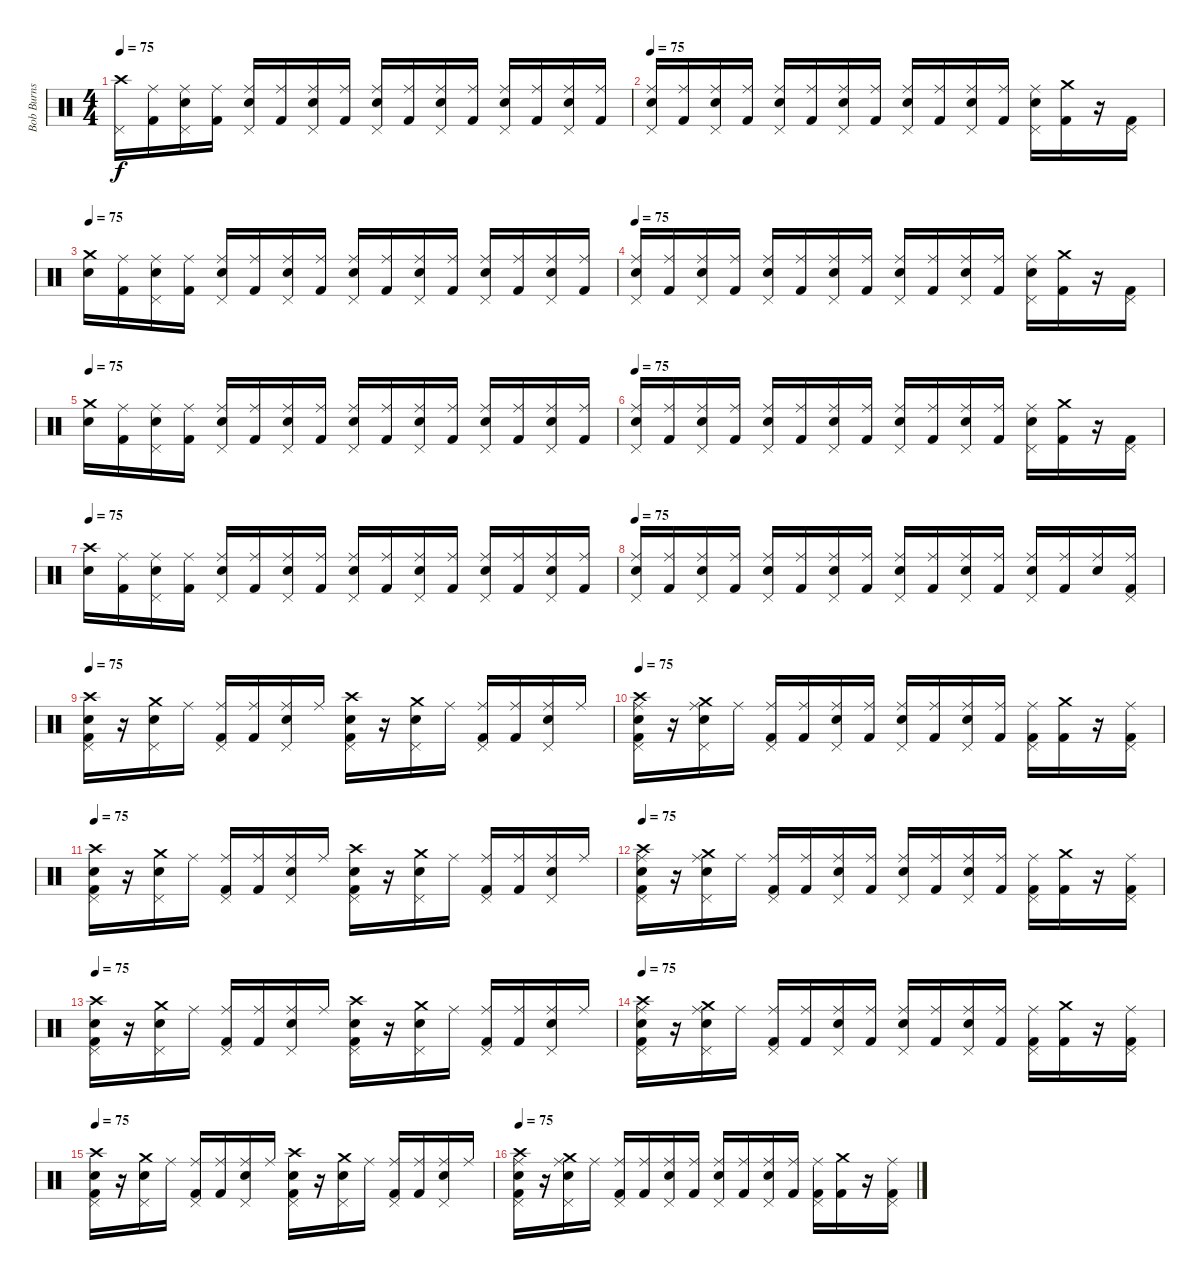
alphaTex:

\track ("Bob Burns (drums and percussion)" "Bob Burns ") {instrument percussion}
\staff {score}
\articulation defaults
\ts (4 4)
\tempo 75
\clef neutral
\ks c
("Crash high (hit)" "Pedal Hi-Hat (hit)").16{dy f} ("Ride (middle)" "Kick (hit) 2").16 ("Ride (middle)" "Pedal Hi-Hat (hit)" "Electric Snare (hit)").16 ("Ride (middle)" "Kick (hit) 2").16 ("Ride (middle)" "Pedal Hi-Hat (hit)" "Electric Snare (hit)").16 ("Ride (middle)" "Kick (hit) 2").16 ("Ride (middle)" "Pedal Hi-Hat (hit)" "Electric Snare (hit)").16 ("Ride (middle)" "Kick (hit) 2").16 ("Ride (middle)" "Pedal Hi-Hat (hit)" "Electric Snare (hit)").16 ("Ride (middle)" "Kick (hit) 2").16 ("Ride (middle)" "Pedal Hi-Hat (hit)" "Electric Snare (hit)").16 ("Ride (middle)" "Kick (hit) 2").16 ("Ride (middle)" "Pedal Hi-Hat (hit)" "Electric Snare (hit)").16 ("Ride (middle)" "Kick (hit) 2").16 ("Ride (middle)" "Pedal Hi-Hat (hit)" "Electric Snare (hit)").16 ("Ride (middle)" "Kick (hit) 2").16 |
\tempo 75
("Ride (middle)" "Pedal Hi-Hat (hit)" "Electric Snare (hit)").16 ("Ride (middle)" "Kick (hit) 2").16 ("Ride (middle)" "Pedal Hi-Hat (hit)" "Electric Snare (hit)").16 ("Ride (middle)" "Kick (hit) 2").16 ("Ride (middle)" "Pedal Hi-Hat (hit)" "Electric Snare (hit)").16 ("Ride (middle)" "Kick (hit) 2").16 ("Ride (middle)" "Pedal Hi-Hat (hit)" "Electric Snare (hit)").16 ("Ride (middle)" "Kick (hit) 2").16 ("Ride (middle)" "Pedal Hi-Hat (hit)" "Electric Snare (hit)").16 ("Ride (middle)" "Kick (hit) 2").16 ("Ride (middle)" "Pedal Hi-Hat (hit)" "Electric Snare (hit)").16 ("Ride (middle)" "Kick (hit) 2").16 ("Ride (middle)" "Pedal Hi-Hat (hit)" "Electric Snare (hit)").16 ("Crash medium (hit)" "Kick (hit) 2").16 r.16 ("Pedal Hi-Hat (hit)" "Kick (hit) 2").16 |
\tempo 75
("Crash medium (hit)" "Electric Snare (hit)").16 ("Ride (middle)" "Kick (hit) 2").16 ("Ride (middle)" "Pedal Hi-Hat (hit)" "Electric Snare (hit)").16 ("Ride (middle)" "Kick (hit) 2").16 ("Ride (middle)" "Pedal Hi-Hat (hit)" "Electric Snare (hit)").16 ("Ride (middle)" "Kick (hit) 2").16 ("Ride (middle)" "Pedal Hi-Hat (hit)" "Electric Snare (hit)").16 ("Ride (middle)" "Kick (hit) 2").16 ("Ride (middle)" "Pedal Hi-Hat (hit)" "Electric Snare (hit)").16 ("Ride (middle)" "Kick (hit) 2").16 ("Ride (middle)" "Pedal Hi-Hat (hit)" "Electric Snare (hit)").16 ("Ride (middle)" "Kick (hit) 2").16 ("Ride (middle)" "Pedal Hi-Hat (hit)" "Electric Snare (hit)").16 ("Ride (middle)" "Kick (hit) 2").16 ("Ride (middle)" "Pedal Hi-Hat (hit)" "Electric Snare (hit)").16 ("Ride (middle)" "Kick (hit) 2").16 |
\tempo 75
("Ride (middle)" "Pedal Hi-Hat (hit)" "Electric Snare (hit)").16 ("Ride (middle)" "Kick (hit) 2").16 ("Ride (middle)" "Pedal Hi-Hat (hit)" "Electric Snare (hit)").16 ("Ride (middle)" "Kick (hit) 2").16 ("Ride (middle)" "Pedal Hi-Hat (hit)" "Electric Snare (hit)").16 ("Ride (middle)" "Kick (hit) 2").16 ("Ride (middle)" "Pedal Hi-Hat (hit)" "Electric Snare (hit)").16 ("Ride (middle)" "Kick (hit) 2").16 ("Ride (middle)" "Pedal Hi-Hat (hit)" "Electric Snare (hit)").16 ("Ride (middle)" "Kick (hit) 2").16 ("Ride (middle)" "Pedal Hi-Hat (hit)" "Electric Snare (hit)").16 ("Ride (middle)" "Kick (hit) 2").16 ("Ride (middle)" "Pedal Hi-Hat (hit)" "Electric Snare (hit)").16 ("Crash medium (hit)" "Kick (hit) 2").16 r.16 ("Pedal Hi-Hat (hit)" "Kick (hit) 2").16 |
\tempo 75
("Crash medium (hit)" "Electric Snare (hit)").16 ("Ride (middle)" "Kick (hit) 2").16 ("Ride (middle)" "Pedal Hi-Hat (hit)" "Electric Snare (hit)").16 ("Ride (middle)" "Kick (hit) 2").16 ("Ride (middle)" "Pedal Hi-Hat (hit)" "Electric Snare (hit)").16 ("Ride (middle)" "Kick (hit) 2").16 ("Ride (middle)" "Pedal Hi-Hat (hit)" "Electric Snare (hit)").16 ("Ride (middle)" "Kick (hit) 2").16 ("Ride (middle)" "Pedal Hi-Hat (hit)" "Electric Snare (hit)").16 ("Ride (middle)" "Kick (hit) 2").16 ("Ride (middle)" "Pedal Hi-Hat (hit)" "Electric Snare (hit)").16 ("Ride (middle)" "Kick (hit) 2").16 ("Ride (middle)" "Pedal Hi-Hat (hit)" "Electric Snare (hit)").16 ("Ride (middle)" "Kick (hit) 2").16 ("Ride (middle)" "Pedal Hi-Hat (hit)" "Electric Snare (hit)").16 ("Ride (middle)" "Kick (hit) 2").16 |
\tempo 75
("Ride (middle)" "Pedal Hi-Hat (hit)" "Electric Snare (hit)").16 ("Ride (middle)" "Kick (hit) 2").16 ("Ride (middle)" "Pedal Hi-Hat (hit)" "Electric Snare (hit)").16 ("Ride (middle)" "Kick (hit) 2").16 ("Ride (middle)" "Pedal Hi-Hat (hit)" "Electric Snare (hit)").16 ("Ride (middle)" "Kick (hit) 2").16 ("Ride (middle)" "Pedal Hi-Hat (hit)" "Electric Snare (hit)").16 ("Ride (middle)" "Kick (hit) 2").16 ("Ride (middle)" "Pedal Hi-Hat (hit)" "Electric Snare (hit)").16 ("Ride (middle)" "Kick (hit) 2").16 ("Ride (middle)" "Pedal Hi-Hat (hit)" "Electric Snare (hit)").16 ("Ride (middle)" "Kick (hit) 2").16 ("Ride (middle)" "Pedal Hi-Hat (hit)" "Electric Snare (hit)").16 ("Crash medium (hit)" "Kick (hit) 2").16 r.16 ("Pedal Hi-Hat (hit)" "Kick (hit) 2").16 |
\tempo 75
("Crash high (hit)" "Electric Snare (hit)").16 ("Ride (middle)" "Kick (hit) 2").16 ("Ride (middle)" "Pedal Hi-Hat (hit)" "Electric Snare (hit)").16 ("Ride (middle)" "Kick (hit) 2").16 ("Ride (middle)" "Pedal Hi-Hat (hit)" "Electric Snare (hit)").16 ("Ride (middle)" "Kick (hit) 2").16 ("Ride (middle)" "Pedal Hi-Hat (hit)" "Electric Snare (hit)").16 ("Ride (middle)" "Kick (hit) 2").16 ("Ride (middle)" "Pedal Hi-Hat (hit)" "Electric Snare (hit)").16 ("Ride (middle)" "Kick (hit) 2").16 ("Ride (middle)" "Pedal Hi-Hat (hit)" "Electric Snare (hit)").16 ("Ride (middle)" "Kick (hit) 2").16 ("Ride (middle)" "Pedal Hi-Hat (hit)" "Electric Snare (hit)").16 ("Ride (middle)" "Kick (hit) 2").16 ("Ride (middle)" "Pedal Hi-Hat (hit)" "Electric Snare (hit)").16 ("Ride (middle)" "Kick (hit) 2").16 |
\tempo 75
("Ride (middle)" "Pedal Hi-Hat (hit)" "Electric Snare (hit)").16 ("Ride (middle)" "Kick (hit) 2").16 ("Ride (middle)" "Pedal Hi-Hat (hit)" "Electric Snare (hit)").16 ("Ride (middle)" "Kick (hit) 2").16 ("Ride (middle)" "Pedal Hi-Hat (hit)" "Electric Snare (hit)").16 ("Ride (middle)" "Kick (hit) 2").16 ("Ride (middle)" "Pedal Hi-Hat (hit)" "Electric Snare (hit)").16 ("Ride (middle)" "Kick (hit) 2").16 ("Ride (middle)" "Pedal Hi-Hat (hit)" "Electric Snare (hit)").16 ("Ride (middle)" "Kick (hit) 2").16 ("Ride (middle)" "Pedal Hi-Hat (hit)" "Electric Snare (hit)").16 ("Ride (middle)" "Kick (hit) 2").16 ("Ride (middle)" "Pedal Hi-Hat (hit)" "Electric Snare (hit)").16 ("Ride (middle)" "Kick (hit) 2").16 ("Ride (middle)" "Electric Snare (hit)").16 ("Ride (middle)" "Pedal Hi-Hat (hit)" "Kick (hit) 2").16 |
\tempo 75
("Crash high (hit)" "Electric Snare (hit)" "Pedal Hi-Hat (hit)" "Kick (hit) 2").16 r.16 ("Crash medium (hit)" "Pedal Hi-Hat (hit)" "Electric Snare (hit)").16 "Ride (middle)".16 ("Ride (middle)" "Pedal Hi-Hat (hit)" "Kick (hit) 2").16 ("Ride (middle)" "Kick (hit) 2").16 ("Ride (middle)" "Pedal Hi-Hat (hit)" "Electric Snare (hit)").16 "Ride (middle)".16 ("Crash high (hit)" "Pedal Hi-Hat (hit)" "Electric Snare (hit)" "Kick (hit) 2").16 r.16 ("Crash medium (hit)" "Pedal Hi-Hat (hit)" "Electric Snare (hit)").16 "Ride (middle)".16 ("Ride (middle)" "Pedal Hi-Hat (hit)" "Kick (hit) 2").16 ("Ride (middle)" "Kick (hit) 2").16 ("Ride (middle)" "Pedal Hi-Hat (hit)" "Electric Snare (hit)").16 "Ride (middle)".16 |
\tempo 75
("Crash high (hit)" "Ride (middle)" "Pedal Hi-Hat (hit)" "Electric Snare (hit)" "Kick (hit) 2").16 r.16 ("Crash medium (hit)" "Ride (middle)" "Pedal Hi-Hat (hit)" "Electric Snare (hit)").16 "Ride (middle)".16 ("Ride (middle)" "Pedal Hi-Hat (hit)" "Kick (hit) 2").16 ("Ride (middle)" "Kick (hit) 2").16 ("Ride (middle)" "Pedal Hi-Hat (hit)" "Electric Snare (hit)").16 ("Ride (middle)" "Kick (hit) 2").16 ("Ride (middle)" "Pedal Hi-Hat (hit)" "Electric Snare (hit)").16 ("Ride (middle)" "Kick (hit) 2").16 ("Ride (middle)" "Pedal Hi-Hat (hit)" "Electric Snare (hit)").16 ("Ride (middle)" "Kick (hit) 2").16 ("Ride (middle)" "Pedal Hi-Hat (hit)" "Kick (hit) 2").16 ("Crash medium (hit)" "Kick (hit) 2").16 r.16 ("Ride (middle)" "Pedal Hi-Hat (hit)" "Kick (hit) 2").16 |
\tempo 75
("Crash high (hit)" "Electric Snare (hit)" "Pedal Hi-Hat (hit)" "Kick (hit) 2").16 r.16 ("Crash medium (hit)" "Pedal Hi-Hat (hit)" "Electric Snare (hit)").16 "Ride (middle)".16 ("Ride (middle)" "Pedal Hi-Hat (hit)" "Kick (hit) 2").16 ("Ride (middle)" "Kick (hit) 2").16 ("Ride (middle)" "Pedal Hi-Hat (hit)" "Electric Snare (hit)").16 "Ride (middle)".16 ("Crash high (hit)" "Pedal Hi-Hat (hit)" "Electric Snare (hit)" "Kick (hit) 2").16 r.16 ("Crash medium (hit)" "Pedal Hi-Hat (hit)" "Electric Snare (hit)").16 "Ride (middle)".16 ("Ride (middle)" "Pedal Hi-Hat (hit)" "Kick (hit) 2").16 ("Ride (middle)" "Kick (hit) 2").16 ("Ride (middle)" "Pedal Hi-Hat (hit)" "Electric Snare (hit)").16 "Ride (middle)".16 |
\tempo 75
("Crash high (hit)" "Ride (middle)" "Pedal Hi-Hat (hit)" "Electric Snare (hit)" "Kick (hit) 2").16 r.16 ("Crash medium (hit)" "Ride (middle)" "Pedal Hi-Hat (hit)" "Electric Snare (hit)").16 "Ride (middle)".16 ("Ride (middle)" "Pedal Hi-Hat (hit)" "Kick (hit) 2").16 ("Ride (middle)" "Kick (hit) 2").16 ("Ride (middle)" "Pedal Hi-Hat (hit)" "Electric Snare (hit)").16 ("Ride (middle)" "Kick (hit) 2").16 ("Ride (middle)" "Pedal Hi-Hat (hit)" "Electric Snare (hit)").16 ("Ride (middle)" "Kick (hit) 2").16 ("Ride (middle)" "Pedal Hi-Hat (hit)" "Electric Snare (hit)").16 ("Ride (middle)" "Kick (hit) 2").16 ("Ride (middle)" "Pedal Hi-Hat (hit)" "Kick (hit) 2").16 ("Crash medium (hit)" "Kick (hit) 2").16 r.16 ("Ride (middle)" "Pedal Hi-Hat (hit)" "Kick (hit) 2").16 |
\tempo 75
("Crash high (hit)" "Electric Snare (hit)" "Pedal Hi-Hat (hit)" "Kick (hit) 2").16 r.16 ("Crash medium (hit)" "Pedal Hi-Hat (hit)" "Electric Snare (hit)").16 "Ride (middle)".16 ("Ride (middle)" "Pedal Hi-Hat (hit)" "Kick (hit) 2").16 ("Ride (middle)" "Kick (hit) 2").16 ("Ride (middle)" "Pedal Hi-Hat (hit)" "Electric Snare (hit)").16 "Ride (middle)".16 ("Crash high (hit)" "Pedal Hi-Hat (hit)" "Electric Snare (hit)" "Kick (hit) 2").16 r.16 ("Crash medium (hit)" "Pedal Hi-Hat (hit)" "Electric Snare (hit)").16 "Ride (middle)".16 ("Ride (middle)" "Pedal Hi-Hat (hit)" "Kick (hit) 2").16 ("Ride (middle)" "Kick (hit) 2").16 ("Ride (middle)" "Pedal Hi-Hat (hit)" "Electric Snare (hit)").16 "Ride (middle)".16 |
\tempo 75
("Crash high (hit)" "Ride (middle)" "Pedal Hi-Hat (hit)" "Electric Snare (hit)" "Kick (hit) 2").16 r.16 ("Crash medium (hit)" "Ride (middle)" "Pedal Hi-Hat (hit)" "Electric Snare (hit)").16 "Ride (middle)".16 ("Ride (middle)" "Pedal Hi-Hat (hit)" "Kick (hit) 2").16 ("Ride (middle)" "Kick (hit) 2").16 ("Ride (middle)" "Pedal Hi-Hat (hit)" "Electric Snare (hit)").16 ("Ride (middle)" "Kick (hit) 2").16 ("Ride (middle)" "Pedal Hi-Hat (hit)" "Electric Snare (hit)").16 ("Ride (middle)" "Kick (hit) 2").16 ("Ride (middle)" "Pedal Hi-Hat (hit)" "Electric Snare (hit)").16 ("Ride (middle)" "Kick (hit) 2").16 ("Ride (middle)" "Pedal Hi-Hat (hit)" "Kick (hit) 2").16 ("Crash medium (hit)" "Kick (hit) 2").16 r.16 ("Ride (middle)" "Pedal Hi-Hat (hit)" "Kick (hit) 2").16 |
\tempo 75
("Crash high (hit)" "Electric Snare (hit)" "Pedal Hi-Hat (hit)" "Kick (hit) 2").16 r.16 ("Crash medium (hit)" "Pedal Hi-Hat (hit)" "Electric Snare (hit)").16 "Ride (middle)".16 ("Ride (middle)" "Pedal Hi-Hat (hit)" "Kick (hit) 2").16 ("Ride (middle)" "Kick (hit) 2").16 ("Ride (middle)" "Pedal Hi-Hat (hit)" "Electric Snare (hit)").16 "Ride (middle)".16 ("Crash high (hit)" "Pedal Hi-Hat (hit)" "Electric Snare (hit)" "Kick (hit) 2").16 r.16 ("Crash medium (hit)" "Pedal Hi-Hat (hit)" "Electric Snare (hit)").16 "Ride (middle)".16 ("Ride (middle)" "Pedal Hi-Hat (hit)" "Kick (hit) 2").16 ("Ride (middle)" "Kick (hit) 2").16 ("Ride (middle)" "Pedal Hi-Hat (hit)" "Electric Snare (hit)").16 "Ride (middle)".16 |
\tempo 75
("Crash high (hit)" "Ride (middle)" "Pedal Hi-Hat (hit)" "Electric Snare (hit)" "Kick (hit) 2").16 r.16 ("Crash medium (hit)" "Ride (middle)" "Pedal Hi-Hat (hit)" "Electric Snare (hit)").16 "Ride (middle)".16 ("Ride (middle)" "Pedal Hi-Hat (hit)" "Kick (hit) 2").16 ("Ride (middle)" "Kick (hit) 2").16 ("Ride (middle)" "Pedal Hi-Hat (hit)" "Electric Snare (hit)").16 ("Ride (middle)" "Kick (hit) 2").16 ("Ride (middle)" "Pedal Hi-Hat (hit)" "Electric Snare (hit)").16 ("Ride (middle)" "Kick (hit) 2").16 ("Ride (middle)" "Pedal Hi-Hat (hit)" "Electric Snare (hit)").16 ("Ride (middle)" "Kick (hit) 2").16 ("Ride (middle)" "Pedal Hi-Hat (hit)" "Kick (hit) 2").16 ("Crash medium (hit)" "Kick (hit) 2").16 r.16 ("Ride (middle)" "Pedal Hi-Hat (hit)" "Kick (hit) 2").16
